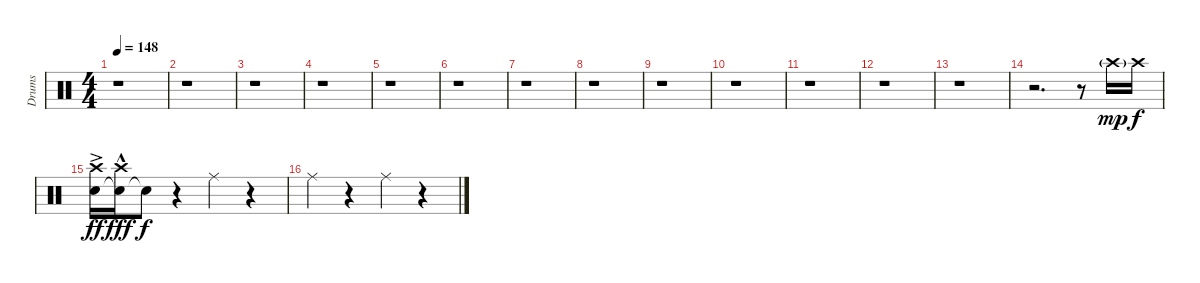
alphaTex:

\track ("Drums" "Drums") {instrument percussion}
\staff {score}
\articulation defaults
\ts (4 4)
\tempo 148
\clef neutral
\ks c
r.1{dy mp} |
r.1 |
r.1 |
r.1 |
r.1 |
r.1 |
r.1 |
r.1 |
r.1 |
r.1 |
r.1 |
r.1 |
r.1 |
r.2{d} r.8 "Crash high (hit)"{g}.16 "Crash high (hit)".16{dy f} |
("Snare (hit)" "Crash high (hit)"{ac}).16{dy ff} ("Snare (hit)"{t} "Crash high (hit)"{hac}).16{dy fff} "Snare (hit)"{t}.8{dy f} r.4 "Ride (middle)".4 r.4 |
"Ride (middle)".4 r.4 "Ride (middle)".4 r.4
